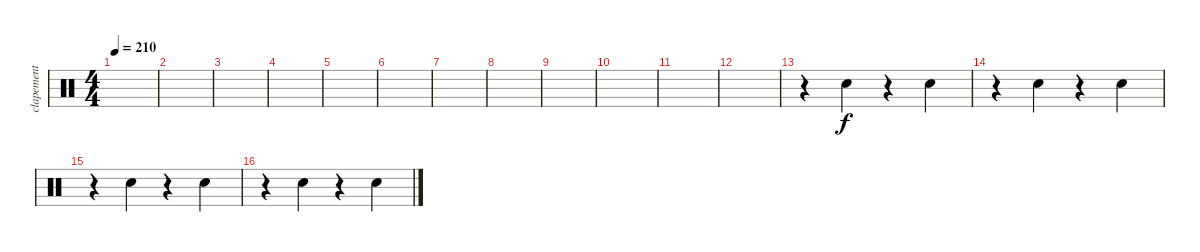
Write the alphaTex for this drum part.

\track ("clapement de main( The Adicts ) " "clapement ") {instrument percussion}
\staff {score}
\articulation defaults
\ts (4 4)
\tempo 210
\clef neutral
\ks c
|
|
|
|
|
|
|
|
|
|
|
|
r.4 "Hand Clap (hit)".4 r.4 "Hand Clap (hit)".4 |
r.4 "Hand Clap (hit)".4 r.4 "Hand Clap (hit)".4 |
r.4 "Hand Clap (hit)".4 r.4 "Hand Clap (hit)".4 |
r.4 "Hand Clap (hit)".4 r.4 "Hand Clap (hit)".4
